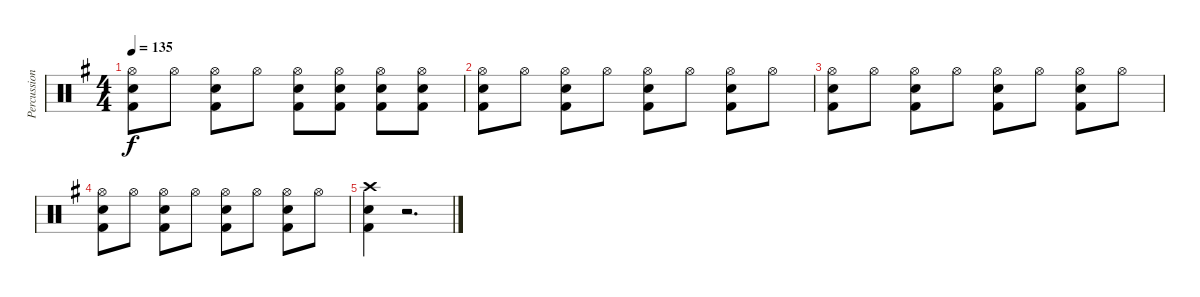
\track ("Percussion" "Percussion") {instrument percussion}
\staff {score}
\articulation defaults
\ts (4 4)
\tempo 135
\clef neutral
\ks g
("Hi-Hat (open)" "Snare (hit) 2" "Kick (hit) 2").8{dy f} "Hi-Hat (open)".8 ("Hi-Hat (open)" "Snare (hit) 2" "Kick (hit) 2").8 "Hi-Hat (open)".8 ("Hi-Hat (open)" "Snare (hit) 2" "Kick (hit) 2").8 ("Hi-Hat (open)" "Snare (hit) 2" "Kick (hit) 2").8 ("Hi-Hat (open)" "Snare (hit) 2" "Kick (hit) 2").8 ("Hi-Hat (open)" "Snare (hit) 2" "Kick (hit) 2").8 |
("Hi-Hat (open)" "Snare (hit) 2" "Kick (hit) 2").8 "Hi-Hat (open)".8 ("Hi-Hat (open)" "Snare (hit) 2" "Kick (hit) 2").8 "Hi-Hat (open)".8 ("Hi-Hat (open)" "Snare (hit) 2" "Kick (hit) 2").8 "Hi-Hat (open)".8 ("Hi-Hat (open)" "Snare (hit) 2" "Kick (hit) 2").8 "Hi-Hat (open)".8 |
("Hi-Hat (open)" "Snare (hit) 2" "Kick (hit) 2").8 "Hi-Hat (open)".8 ("Hi-Hat (open)" "Snare (hit) 2" "Kick (hit) 2").8 "Hi-Hat (open)".8 ("Hi-Hat (open)" "Snare (hit) 2" "Kick (hit) 2").8 "Hi-Hat (open)".8 ("Hi-Hat (open)" "Snare (hit) 2" "Kick (hit) 2").8 "Hi-Hat (open)".8 |
("Hi-Hat (open)" "Snare (hit) 2" "Kick (hit) 2").8 "Hi-Hat (open)".8 ("Hi-Hat (open)" "Snare (hit) 2" "Kick (hit) 2").8 "Hi-Hat (open)".8 ("Hi-Hat (open)" "Snare (hit) 2" "Kick (hit) 2").8 "Hi-Hat (open)".8 ("Hi-Hat (open)" "Snare (hit) 2" "Kick (hit) 2").8 "Hi-Hat (open)".8 |
("Crash high (hit)" "Snare (hit) 2" "Kick (hit) 2").4 r.2{d}
